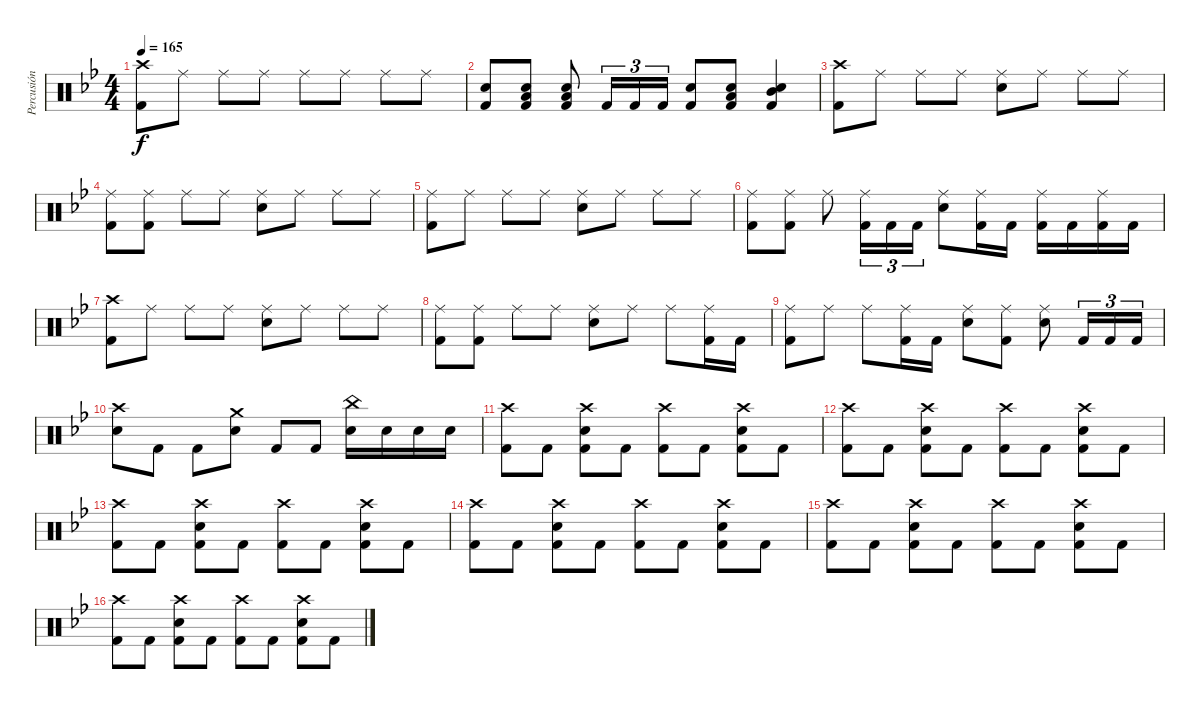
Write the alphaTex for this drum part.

\track ("Percusión" "Percusión") {instrument percussion}
\staff {score}
\articulation defaults
\ts (4 4)
\tempo 165
\clef neutral
\ks bb
("Crash high (hit)" "Kick (hit) 2").8{dy f} "Ride (middle)".8 "Ride (middle)".8 "Ride (middle)".8 "Ride (middle)".8 "Ride (middle)".8 "Ride (middle)".8 "Ride (middle)".8 |
("Electric Snare (hit)" "Kick (hit) 2").8 ("Low Tom (hit)" "Electric Snare (hit)" "Kick (hit) 2").8 ("Low Tom (hit)" "Electric Snare (hit)" "Kick (hit) 2").8 "Kick (hit) 2".16{tu (3 2)} "Kick (hit) 2".16{tu (3 2)} "Kick (hit) 2".16{tu (3 2)} ("Electric Snare (hit)" "Kick (hit) 2").8 ("Low Tom (hit)" "Electric Snare (hit)" "Kick (hit) 2").8 ("Mid Tom (hit)" "Electric Snare (hit)" "Kick (hit) 2").4 |
("Crash high (hit)" "Kick (hit) 2").8 "Ride (middle)".8 "Ride (middle)".8 "Ride (middle)".8 ("Ride (middle)" "Electric Snare (hit)").8 "Ride (middle)".8 "Ride (middle)".8 "Ride (middle)".8 |
("Ride (middle)" "Kick (hit) 2").8 ("Ride (middle)" "Kick (hit) 2").8 "Ride (middle)".8 "Ride (middle)".8 ("Ride (middle)" "Electric Snare (hit)").8 "Ride (middle)".8 "Ride (middle)".8 "Ride (middle)".8 |
("Ride (middle)" "Kick (hit) 2").8 "Ride (middle)".8 "Ride (middle)".8 "Ride (middle)".8 ("Ride (middle)" "Electric Snare (hit)").8 "Ride (middle)".8 "Ride (middle)".8 "Ride (middle)".8 |
("Ride (middle)" "Kick (hit) 2").8 ("Ride (middle)" "Kick (hit) 2").8 "Ride (middle)".8 ("Ride (middle)" "Kick (hit) 2").16{tu (3 2)} "Kick (hit) 2".16{tu (3 2)} "Kick (hit) 2".16{tu (3 2)} ("Ride (middle)" "Electric Snare (hit)").8 ("Ride (middle)" "Kick (hit) 2").16 "Kick (hit) 2".16 ("Ride (middle)" "Kick (hit) 2").16 "Kick (hit) 2".16 ("Ride (middle)" "Kick (hit) 2").16 "Kick (hit) 2".16 |
("Crash high (hit)" "Kick (hit) 2").8 "Ride (middle)".8 "Ride (middle)".8 "Ride (middle)".8 ("Ride (middle)" "Electric Snare (hit)").8 "Ride (middle)".8 "Ride (middle)".8 "Ride (middle)".8 |
("Ride (middle)" "Kick (hit) 2").8 ("Ride (middle)" "Kick (hit) 2").8 "Ride (middle)".8 "Ride (middle)".8 ("Ride (middle)" "Electric Snare (hit)").8 "Ride (middle)".8 "Ride (middle)".8 ("Ride (middle)" "Kick (hit) 2").16 "Kick (hit) 2".16 |
("Ride (middle)" "Kick (hit) 2").8 "Ride (middle)".8 "Ride (middle)".8 ("Ride (middle)" "Kick (hit) 2").16 "Kick (hit) 2".16 ("Ride (middle)" "Electric Snare (hit)").8 ("Ride (middle)" "Kick (hit) 2").8 ("Ride (middle)" "Electric Snare (hit)").8 "Kick (hit) 2".16{tu (3 2)} "Kick (hit) 2".16{tu (3 2)} "Kick (hit) 2".16{tu (3 2)} |
("Crash high (hit)" "Electric Snare (hit)").8 "Kick (hit) 2".8 "Kick (hit) 2".8 ("Crash medium (hit)" "Electric Snare (hit)").8 "Kick (hit) 2".8 "Kick (hit) 2".8 ("China (hit)" "Electric Snare (hit)").16 "Electric Snare (hit)".16 "Electric Snare (hit)".16 "Electric Snare (hit)".16 |
("Crash high (hit)" "Kick (hit) 2").8 "Kick (hit) 2".8 ("Crash high (hit)" "Electric Snare (hit)" "Kick (hit) 2").8 "Kick (hit) 2".8 ("Crash high (hit)" "Kick (hit) 2").8 "Kick (hit) 2".8 ("Crash high (hit)" "Electric Snare (hit)" "Kick (hit) 2").8 "Kick (hit) 2".8 |
("Crash high (hit)" "Kick (hit) 2").8 "Kick (hit) 2".8 ("Crash high (hit)" "Electric Snare (hit)" "Kick (hit) 2").8 "Kick (hit) 2".8 ("Crash high (hit)" "Kick (hit) 2").8 "Kick (hit) 2".8 ("Crash high (hit)" "Electric Snare (hit)" "Kick (hit) 2").8 "Kick (hit) 2".8 |
("Crash high (hit)" "Kick (hit) 2").8 "Kick (hit) 2".8 ("Crash high (hit)" "Electric Snare (hit)" "Kick (hit) 2").8 "Kick (hit) 2".8 ("Crash high (hit)" "Kick (hit) 2").8 "Kick (hit) 2".8 ("Crash high (hit)" "Electric Snare (hit)" "Kick (hit) 2").8 "Kick (hit) 2".8 |
("Crash high (hit)" "Kick (hit) 2").8 "Kick (hit) 2".8 ("Crash high (hit)" "Electric Snare (hit)" "Kick (hit) 2").8 "Kick (hit) 2".8 ("Crash high (hit)" "Kick (hit) 2").8 "Kick (hit) 2".8 ("Crash high (hit)" "Electric Snare (hit)" "Kick (hit) 2").8 "Kick (hit) 2".8 |
("Crash high (hit)" "Kick (hit) 2").8 "Kick (hit) 2".8 ("Crash high (hit)" "Electric Snare (hit)" "Kick (hit) 2").8 "Kick (hit) 2".8 ("Crash high (hit)" "Kick (hit) 2").8 "Kick (hit) 2".8 ("Crash high (hit)" "Electric Snare (hit)" "Kick (hit) 2").8 "Kick (hit) 2".8 |
("Crash high (hit)" "Kick (hit) 2").8 "Kick (hit) 2".8 ("Crash high (hit)" "Electric Snare (hit)" "Kick (hit) 2").8 "Kick (hit) 2".8 ("Crash high (hit)" "Kick (hit) 2").8 "Kick (hit) 2".8 ("Crash high (hit)" "Electric Snare (hit)" "Kick (hit) 2").8 "Kick (hit) 2".8
